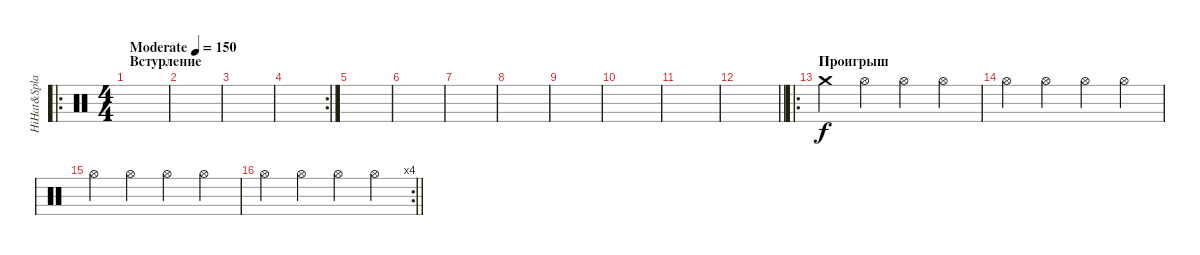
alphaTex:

\track ("HiHat&Splash" "HiHat&Spla") {instrument percussion}
\staff {score}
\articulation defaults
\ro
\ts (4 4)
\section ("" "Встурление")
\tempo (150 "Moderate")
\clef neutral
\ks c
|
|
|
\rc 2
|
|
|
|
|
|
|
|
\barLineRight lightlight
|
\ro
\section ("" "Проигрыш")
"Crash medium (hit)".4 "Hi-Hat (open)".4 "Hi-Hat (open)".4 "Hi-Hat (open)".4 |
"Hi-Hat (open)".4 "Hi-Hat (open)".4 "Hi-Hat (open)".4 "Hi-Hat (open)".4 |
"Hi-Hat (open)".4 "Hi-Hat (open)".4 "Hi-Hat (open)".4 "Hi-Hat (open)".4 |
\rc 4
\barLineRight lightlight "Hi-Hat (open)".4 "Hi-Hat (open)".4 "Hi-Hat (open)".4 "Hi-Hat (open)".4
